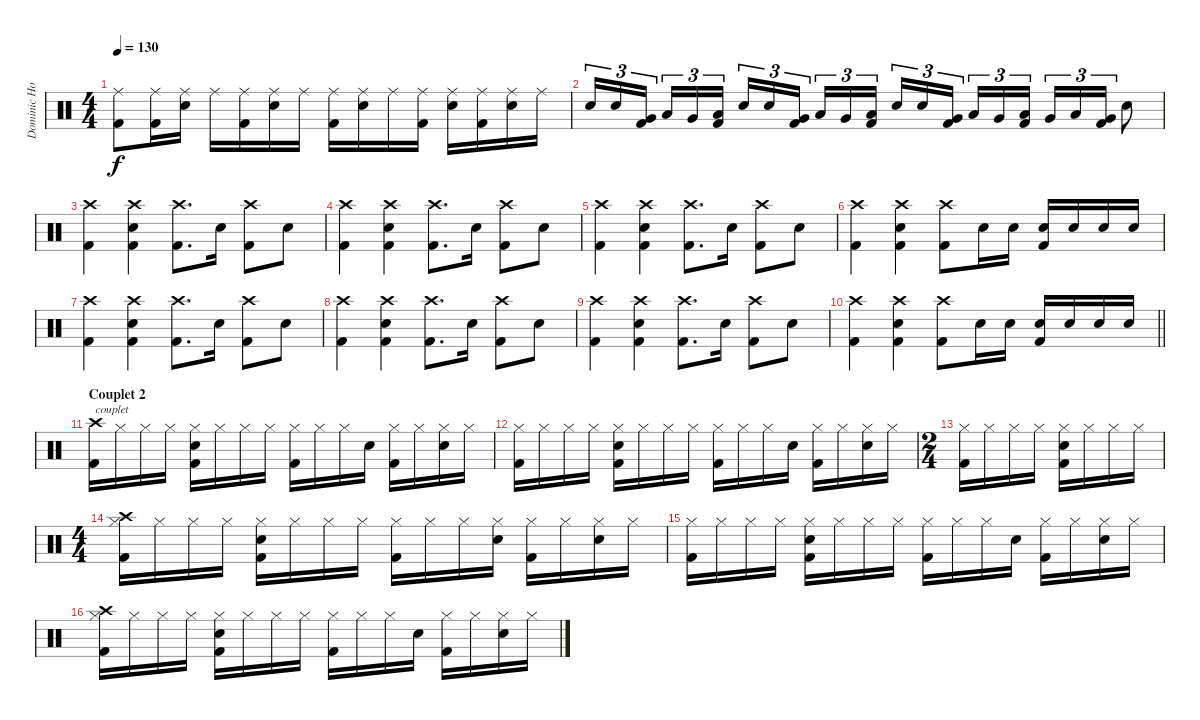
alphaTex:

\track ("Dominic Howard" "Dominic Ho") {instrument percussion}
\staff {score}
\articulation defaults
\ts (4 4)
\tempo 130
\clef neutral
\ks c
("Ride (middle)" "Kick (hit) 2").8{dy f} ("Ride (middle)" "Kick (hit) 2").16 ("Ride (middle)" "Electric Snare (hit)").16 "Ride (middle)".16 ("Ride (middle)" "Kick (hit) 2").16 ("Ride (middle)" "Electric Snare (hit)").16 "Ride (middle)".16 ("Ride (middle)" "Kick (hit) 2").16 ("Ride (middle)" "Electric Snare (hit)").16 "Ride (middle)".16 ("Ride (middle)" "Kick (hit) 2").16 ("Ride (middle)" "Electric Snare (hit)").16 ("Ride (middle)" "Kick (hit) 2").16 ("Ride (middle)" "Electric Snare (hit)").16 "Ride (middle)".16 |
"Electric Snare (hit)".16{tu (3 2)} "Electric Snare (hit)".16{tu (3 2)} ("Very Low Tom (hit)" "Kick (hit) 2").16{tu (3 2) beam splitsecondary} "Low Tom (hit)".16{tu (3 2)} "Very Low Tom (hit)".16{tu (3 2)} ("Low Tom (hit)" "Kick (hit) 2").16{tu (3 2)} "Electric Snare (hit)".16{tu (3 2)} "Electric Snare (hit)".16{tu (3 2)} ("Very Low Tom (hit)" "Kick (hit) 2").16{tu (3 2) beam splitsecondary} "Low Tom (hit)".16{tu (3 2)} "Very Low Tom (hit)".16{tu (3 2)} ("Low Tom (hit)" "Kick (hit) 2").16{tu (3 2)} "Electric Snare (hit)".16{tu (3 2)} "Electric Snare (hit)".16{tu (3 2)} ("Very Low Tom (hit)" "Kick (hit) 2").16{tu (3 2) beam splitsecondary} "Low Tom (hit)".16{tu (3 2)} "Very Low Tom (hit)".16{tu (3 2)} ("Low Tom (hit)" "Kick (hit) 2").16{tu (3 2)} "Very Low Tom (hit)".16{tu (3 2)} "Low Tom (hit)".16{tu (3 2)} ("Very Low Tom (hit)" "Kick (hit) 2").16{tu (3 2)} "Electric Snare (hit)".8 |
("Crash high (hit)" "Kick (hit) 2").4 ("Kick (hit) 2" "Crash high (hit)" "Electric Snare (hit)").4 ("Crash high (hit)" "Kick (hit) 2").8{d} "Electric Snare (hit)".16 ("Crash high (hit)" "Kick (hit) 2").8 "Electric Snare (hit)".8 |
("Crash high (hit)" "Kick (hit) 2").4 ("Kick (hit) 2" "Crash high (hit)" "Electric Snare (hit)").4 ("Crash high (hit)" "Kick (hit) 2").8{d} "Electric Snare (hit)".16 ("Crash high (hit)" "Kick (hit) 2").8 "Electric Snare (hit)".8 |
("Crash high (hit)" "Kick (hit) 2").4 ("Kick (hit) 2" "Crash high (hit)" "Electric Snare (hit)").4 ("Crash high (hit)" "Kick (hit) 2").8{d} "Electric Snare (hit)".16 ("Crash high (hit)" "Kick (hit) 2").8 "Electric Snare (hit)".8 |
("Crash high (hit)" "Kick (hit) 2").4 ("Kick (hit) 2" "Crash high (hit)" "Electric Snare (hit)").4 ("Crash high (hit)" "Kick (hit) 2").8 "Electric Snare (hit)".16 "Electric Snare (hit)".16 ("Kick (hit) 2" "Electric Snare (hit)").16 "Electric Snare (hit)".16 "Electric Snare (hit)".16 "Electric Snare (hit)".16 |
("Crash high (hit)" "Kick (hit) 2").4 ("Kick (hit) 2" "Crash high (hit)" "Electric Snare (hit)").4 ("Crash high (hit)" "Kick (hit) 2").8{d} "Electric Snare (hit)".16 ("Crash high (hit)" "Kick (hit) 2").8 "Electric Snare (hit)".8 |
("Crash high (hit)" "Kick (hit) 2").4 ("Kick (hit) 2" "Crash high (hit)" "Electric Snare (hit)").4 ("Crash high (hit)" "Kick (hit) 2").8{d} "Electric Snare (hit)".16 ("Crash high (hit)" "Kick (hit) 2").8 "Electric Snare (hit)".8 |
("Crash high (hit)" "Kick (hit) 2").4 ("Kick (hit) 2" "Crash high (hit)" "Electric Snare (hit)").4 ("Crash high (hit)" "Kick (hit) 2").8{d} "Electric Snare (hit)".16 ("Crash high (hit)" "Kick (hit) 2").8 "Electric Snare (hit)".8 |
\barLineRight lightlight
("Crash high (hit)" "Kick (hit) 2").4 ("Kick (hit) 2" "Crash high (hit)" "Electric Snare (hit)").4 ("Crash high (hit)" "Kick (hit) 2").8 "Electric Snare (hit)".16 "Electric Snare (hit)".16 ("Kick (hit) 2" "Electric Snare (hit)").16 "Electric Snare (hit)".16 "Electric Snare (hit)".16 "Electric Snare (hit)".16 |
\section ("" "Couplet 2")
("Crash high (hit)" "Kick (hit) 2").16{txt "couplet"} "Hi-Hat (closed)".16 "Hi-Hat (closed)".16 "Hi-Hat (closed)".16 ("Hi-Hat (closed)" "Kick (hit) 2" "Electric Snare (hit)").16 "Hi-Hat (closed)".16 "Hi-Hat (closed)".16 "Hi-Hat (closed)".16 ("Hi-Hat (closed)" "Kick (hit) 2").16 "Hi-Hat (closed)".16 "Hi-Hat (closed)".16 "Electric Snare (hit)".16 ("Hi-Hat (closed)" "Kick (hit) 2").16 "Hi-Hat (closed)".16 ("Hi-Hat (closed)" "Electric Snare (hit)").16 "Hi-Hat (closed)".16 |
("Hi-Hat (closed)" "Kick (hit) 2").16 "Hi-Hat (closed)".16 "Hi-Hat (closed)".16 "Hi-Hat (closed)".16 ("Hi-Hat (closed)" "Kick (hit) 2" "Electric Snare (hit)").16 "Hi-Hat (closed)".16 "Hi-Hat (closed)".16 "Hi-Hat (closed)".16 ("Hi-Hat (closed)" "Kick (hit) 2").16 "Hi-Hat (closed)".16 "Hi-Hat (closed)".16 "Electric Snare (hit)".16 ("Hi-Hat (closed)" "Kick (hit) 2").16 "Hi-Hat (closed)".16 ("Hi-Hat (closed)" "Electric Snare (hit)").16 "Hi-Hat (closed)".16 |
\ts (2 4)
("Hi-Hat (closed)" "Kick (hit) 2").16 "Hi-Hat (closed)".16 "Hi-Hat (closed)".16 "Hi-Hat (closed)".16 ("Hi-Hat (closed)" "Kick (hit) 2" "Electric Snare (hit)").16 "Hi-Hat (closed)".16 "Hi-Hat (closed)".16 "Hi-Hat (closed)".16 |
\ts (4 4)
("Crash high (hit)" "Hi-Hat (closed)" "Kick (hit) 2").16 "Hi-Hat (closed)".16 "Hi-Hat (closed)".16 "Hi-Hat (closed)".16 ("Hi-Hat (closed)" "Electric Snare (hit)" "Kick (hit) 2").16 "Hi-Hat (closed)".16 "Hi-Hat (closed)".16 "Hi-Hat (closed)".16 ("Hi-Hat (closed)" "Kick (hit) 2").16 "Hi-Hat (closed)".16 "Hi-Hat (closed)".16 ("Hi-Hat (closed)" "Electric Snare (hit)").16 ("Hi-Hat (closed)" "Kick (hit) 2").16 "Hi-Hat (closed)".16 ("Electric Snare (hit)" "Hi-Hat (closed)").16 "Hi-Hat (closed)".16 |
("Hi-Hat (closed)" "Kick (hit) 2").16 "Hi-Hat (closed)".16 "Hi-Hat (closed)".16 "Hi-Hat (closed)".16 ("Hi-Hat (closed)" "Electric Snare (hit)" "Kick (hit) 2").16 "Hi-Hat (closed)".16 "Hi-Hat (closed)".16 "Hi-Hat (closed)".16 ("Hi-Hat (closed)" "Kick (hit) 2").16 "Hi-Hat (closed)".16 "Hi-Hat (closed)".16 "Electric Snare (hit)".16 ("Hi-Hat (closed)" "Kick (hit) 2").16 "Hi-Hat (closed)".16 ("Hi-Hat (closed)" "Electric Snare (hit)").16 "Hi-Hat (closed)".16 |
("Crash high (hit)" "Hi-Hat (closed)" "Kick (hit) 2").16 "Hi-Hat (closed)".16 "Hi-Hat (closed)".16 "Hi-Hat (closed)".16 ("Hi-Hat (closed)" "Electric Snare (hit)" "Kick (hit) 2").16 "Hi-Hat (closed)".16 "Hi-Hat (closed)".16 "Hi-Hat (closed)".16 ("Hi-Hat (closed)" "Kick (hit) 2").16 "Hi-Hat (closed)".16 "Hi-Hat (closed)".16 "Electric Snare (hit)".16 ("Hi-Hat (closed)" "Kick (hit) 2").16 "Hi-Hat (closed)".16 ("Hi-Hat (closed)" "Electric Snare (hit)").16 "Hi-Hat (closed)".16
